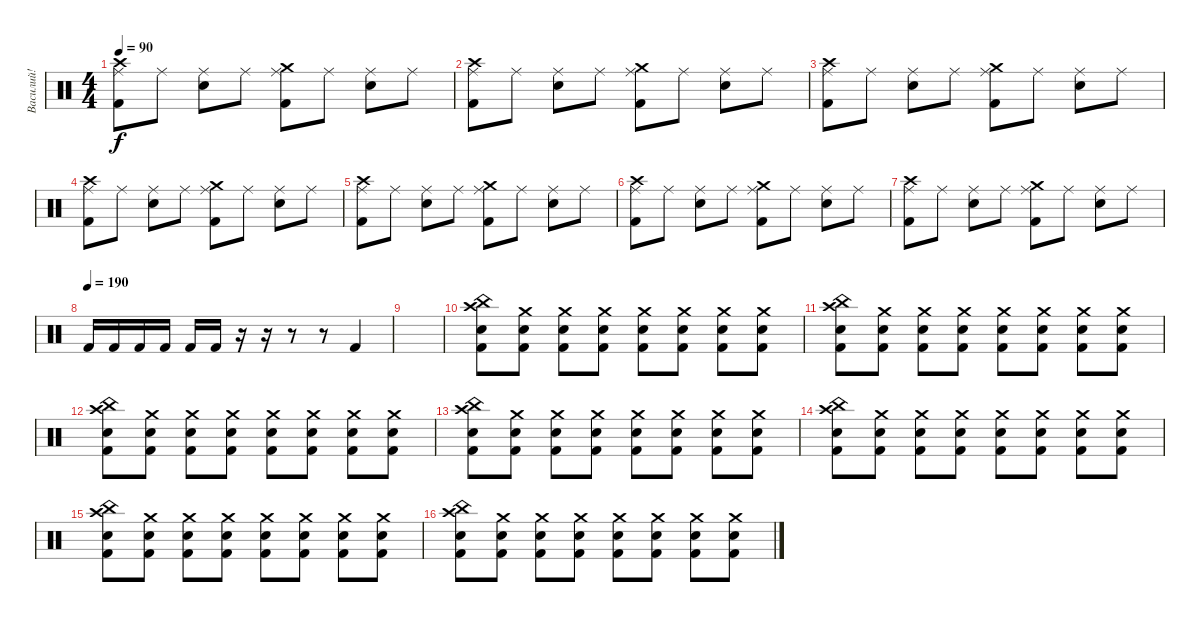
\track ("Василий!" "Василий!") {instrument percussion}
\staff {score}
\articulation defaults
\ts (4 4)
\tempo 90
\clef neutral
\ks c
("Ride (middle)" "Kick (hit) 2" "Crash high (hit)").8{dy f} "Ride (middle)".8 ("Ride (middle)" "Electric Snare (hit)").8 "Ride (middle)".8 ("Ride (middle)" "Kick (hit) 2" "Crash medium (hit)").8 "Ride (middle)".8 ("Ride (middle)" "Electric Snare (hit)").8 "Ride (middle)".8 |
("Ride (middle)" "Kick (hit) 2" "Crash high (hit)").8 "Ride (middle)".8 ("Ride (middle)" "Electric Snare (hit)").8 "Ride (middle)".8 ("Ride (middle)" "Kick (hit) 2" "Crash medium (hit)").8 "Ride (middle)".8 ("Ride (middle)" "Electric Snare (hit)").8 "Ride (middle)".8 |
("Ride (middle)" "Kick (hit) 2" "Crash high (hit)").8 "Ride (middle)".8 ("Ride (middle)" "Electric Snare (hit)").8 "Ride (middle)".8 ("Ride (middle)" "Kick (hit) 2" "Crash medium (hit)").8 "Ride (middle)".8 ("Ride (middle)" "Electric Snare (hit)").8 "Ride (middle)".8 |
("Ride (middle)" "Kick (hit) 2" "Crash high (hit)").8 "Ride (middle)".8 ("Ride (middle)" "Electric Snare (hit)").8 "Ride (middle)".8 ("Ride (middle)" "Kick (hit) 2" "Crash medium (hit)").8 "Ride (middle)".8 ("Ride (middle)" "Electric Snare (hit)").8 "Ride (middle)".8 |
("Ride (middle)" "Kick (hit) 2" "Crash high (hit)").8 "Ride (middle)".8 ("Ride (middle)" "Electric Snare (hit)").8 "Ride (middle)".8 ("Ride (middle)" "Kick (hit) 2" "Crash medium (hit)").8 "Ride (middle)".8 ("Ride (middle)" "Electric Snare (hit)").8 "Ride (middle)".8 |
("Ride (middle)" "Kick (hit) 2" "Crash high (hit)").8 "Ride (middle)".8 ("Ride (middle)" "Electric Snare (hit)").8 "Ride (middle)".8 ("Ride (middle)" "Kick (hit) 2" "Crash medium (hit)").8 "Ride (middle)".8 ("Ride (middle)" "Electric Snare (hit)").8 "Ride (middle)".8 |
("Ride (middle)" "Kick (hit) 2" "Crash high (hit)").8 "Ride (middle)".8 ("Ride (middle)" "Electric Snare (hit)").8 "Ride (middle)".8 ("Ride (middle)" "Kick (hit) 2" "Crash medium (hit)").8 "Ride (middle)".8 ("Ride (middle)" "Electric Snare (hit)").8 "Ride (middle)".8 |
\tempo (190)
"Kick (hit) 2".16 "Kick (hit) 2".16 "Kick (hit) 2".16 "Kick (hit) 2".16 "Kick (hit) 2".16 "Kick (hit) 2".16 r.16 r.16 r.8 r.8 "Kick (hit) 2".4 |
|
("Electric Snare (hit)" "Kick (hit) 2" "China (hit)" "Crash high (hit)").8{volume 7} ("Electric Snare (hit)" "Kick (hit) 2" "Crash medium (hit)").8 ("Electric Snare (hit)" "Kick (hit) 2" "Crash medium (hit)").8 ("Electric Snare (hit)" "Kick (hit) 2" "Crash medium (hit)").8 ("Electric Snare (hit)" "Kick (hit) 2" "Crash medium (hit)").8 ("Electric Snare (hit)" "Kick (hit) 2" "Crash medium (hit)").8 ("Electric Snare (hit)" "Kick (hit) 2" "Crash medium (hit)").8 ("Electric Snare (hit)" "Kick (hit) 2" "Crash medium (hit)").8 |
("Electric Snare (hit)" "Kick (hit) 2" "China (hit)" "Crash high (hit)").8 ("Electric Snare (hit)" "Kick (hit) 2" "Crash medium (hit)").8 ("Electric Snare (hit)" "Kick (hit) 2" "Crash medium (hit)").8 ("Electric Snare (hit)" "Kick (hit) 2" "Crash medium (hit)").8 ("Electric Snare (hit)" "Kick (hit) 2" "Crash medium (hit)").8 ("Electric Snare (hit)" "Kick (hit) 2" "Crash medium (hit)").8 ("Electric Snare (hit)" "Kick (hit) 2" "Crash medium (hit)").8 ("Electric Snare (hit)" "Kick (hit) 2" "Crash medium (hit)").8 |
("Electric Snare (hit)" "Kick (hit) 2" "China (hit)" "Crash high (hit)").8 ("Electric Snare (hit)" "Kick (hit) 2" "Crash medium (hit)").8 ("Electric Snare (hit)" "Kick (hit) 2" "Crash medium (hit)").8 ("Electric Snare (hit)" "Kick (hit) 2" "Crash medium (hit)").8 ("Electric Snare (hit)" "Kick (hit) 2" "Crash medium (hit)").8 ("Electric Snare (hit)" "Kick (hit) 2" "Crash medium (hit)").8 ("Electric Snare (hit)" "Kick (hit) 2" "Crash medium (hit)").8 ("Electric Snare (hit)" "Kick (hit) 2" "Crash medium (hit)").8 |
("Electric Snare (hit)" "Kick (hit) 2" "China (hit)" "Crash high (hit)").8 ("Electric Snare (hit)" "Kick (hit) 2" "Crash medium (hit)").8 ("Electric Snare (hit)" "Kick (hit) 2" "Crash medium (hit)").8 ("Electric Snare (hit)" "Kick (hit) 2" "Crash medium (hit)").8 ("Electric Snare (hit)" "Kick (hit) 2" "Crash medium (hit)").8 ("Electric Snare (hit)" "Kick (hit) 2" "Crash medium (hit)").8 ("Electric Snare (hit)" "Kick (hit) 2" "Crash medium (hit)").8 ("Electric Snare (hit)" "Kick (hit) 2" "Crash medium (hit)").8 |
("Electric Snare (hit)" "Kick (hit) 2" "China (hit)" "Crash high (hit)").8 ("Electric Snare (hit)" "Kick (hit) 2" "Crash medium (hit)").8 ("Electric Snare (hit)" "Kick (hit) 2" "Crash medium (hit)").8 ("Electric Snare (hit)" "Kick (hit) 2" "Crash medium (hit)").8 ("Electric Snare (hit)" "Kick (hit) 2" "Crash medium (hit)").8 ("Electric Snare (hit)" "Kick (hit) 2" "Crash medium (hit)").8 ("Electric Snare (hit)" "Kick (hit) 2" "Crash medium (hit)").8 ("Electric Snare (hit)" "Kick (hit) 2" "Crash medium (hit)").8 |
("Electric Snare (hit)" "Kick (hit) 2" "China (hit)" "Crash high (hit)").8 ("Electric Snare (hit)" "Kick (hit) 2" "Crash medium (hit)").8 ("Electric Snare (hit)" "Kick (hit) 2" "Crash medium (hit)").8 ("Electric Snare (hit)" "Kick (hit) 2" "Crash medium (hit)").8 ("Electric Snare (hit)" "Kick (hit) 2" "Crash medium (hit)").8 ("Electric Snare (hit)" "Kick (hit) 2" "Crash medium (hit)").8 ("Electric Snare (hit)" "Kick (hit) 2" "Crash medium (hit)").8 ("Electric Snare (hit)" "Kick (hit) 2" "Crash medium (hit)").8 |
("Electric Snare (hit)" "Kick (hit) 2" "China (hit)" "Crash high (hit)").8 ("Electric Snare (hit)" "Kick (hit) 2" "Crash medium (hit)").8 ("Electric Snare (hit)" "Kick (hit) 2" "Crash medium (hit)").8 ("Electric Snare (hit)" "Kick (hit) 2" "Crash medium (hit)").8 ("Electric Snare (hit)" "Kick (hit) 2" "Crash medium (hit)").8 ("Electric Snare (hit)" "Kick (hit) 2" "Crash medium (hit)").8 ("Electric Snare (hit)" "Kick (hit) 2" "Crash medium (hit)").8 ("Electric Snare (hit)" "Kick (hit) 2" "Crash medium (hit)").8
